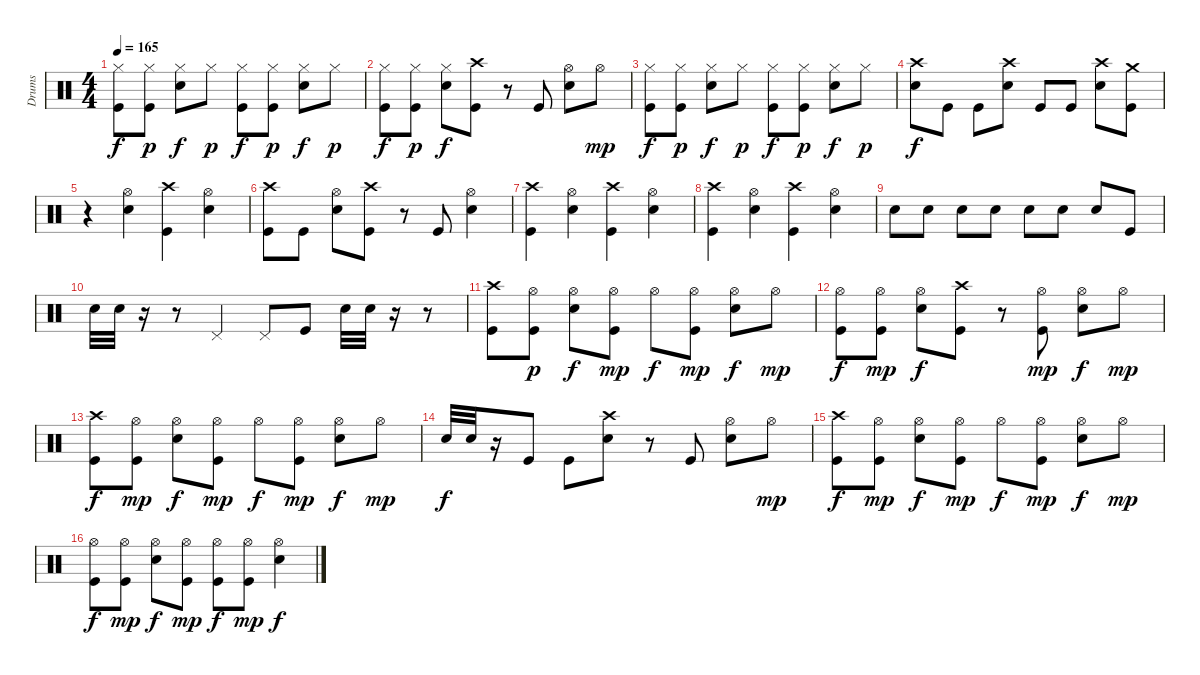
\track ("Drums" "Drums") {instrument percussion}
\staff {score}
\articulation defaults
\ts (4 4)
\tempo 165
\clef neutral
\ks c
("Hi-Hat (closed)" "Kick (hit)").8{dy f} ("Hi-Hat (closed)" "Kick (hit)").8{dy p} ("Hi-Hat (closed)" "Snare (hit) 2").8{dy f} "Hi-Hat (closed)".8{dy p} ("Hi-Hat (closed)" "Kick (hit)").8{dy f} ("Hi-Hat (closed)" "Kick (hit)").8{dy p} ("Hi-Hat (closed)" "Snare (hit) 2").8{dy f} "Hi-Hat (closed)".8{dy p} |
("Hi-Hat (closed)" "Kick (hit)").8{dy f} ("Hi-Hat (closed)" "Kick (hit)").8{dy p} ("Hi-Hat (closed)" "Snare (hit) 2").8{dy f} ("Crash high (hit)" "Kick (hit)").8 r.8 "Kick (hit)".8 ("Hi-Hat (open)" "Snare (hit) 2").8 "Hi-Hat (open)".8{dy mp} |
("Hi-Hat (closed)" "Kick (hit)").8{dy f} ("Hi-Hat (closed)" "Kick (hit)").8{dy p} ("Hi-Hat (closed)" "Snare (hit) 2").8{dy f} "Hi-Hat (closed)".8{dy p} ("Hi-Hat (closed)" "Kick (hit)").8{dy f} ("Hi-Hat (closed)" "Kick (hit)").8{dy p} ("Hi-Hat (closed)" "Snare (hit) 2").8{dy f} "Hi-Hat (closed)".8{dy p} |
("Crash high (hit)" "Snare (hit) 2").8{dy f} "Kick (hit)".8 "Kick (hit)".8 ("Crash high (hit)" "Snare (hit) 2").8 "Kick (hit)".8 "Kick (hit)".8 ("Crash high (hit)" "Snare (hit) 2").8 ("Crash medium (hit)" "Kick (hit)").8 |
r.4 ("Hi-Hat (open)" "Snare (hit) 2").4 ("Crash high (hit)" "Kick (hit)").4 ("Hi-Hat (open)" "Snare (hit) 2").4 |
("Crash high (hit)" "Kick (hit)").8 "Kick (hit)".8 ("Hi-Hat (open)" "Snare (hit) 2").8 ("Crash high (hit)" "Kick (hit)").8 r.8 "Kick (hit)".8 ("Hi-Hat (open)" "Snare (hit) 2").4 |
("Crash high (hit)" "Kick (hit)").4 ("Hi-Hat (open)" "Snare (hit) 2").4 ("Crash high (hit)" "Kick (hit)").4 ("Hi-Hat (open)" "Snare (hit) 2").4 |
("Crash high (hit)" "Kick (hit)").4 ("Hi-Hat (open)" "Snare (hit) 2").4 ("Crash high (hit)" "Kick (hit)").4 ("Hi-Hat (open)" "Snare (hit) 2").4 |
"Snare (hit) 2".8 "Snare (hit) 2".8 "Snare (hit) 2".8 "Snare (hit) 2".8 "Snare (hit) 2".8 "Snare (hit) 2".8 "Snare (hit) 2".8 "Kick (hit)".8 |
"Snare (hit) 2".32 "Snare (hit) 2".32 r.16 r.8 "Pedal Hi-Hat (hit)".4 "Pedal Hi-Hat (hit)".8 "Kick (hit)".8 "Snare (hit) 2".32 "Snare (hit) 2".32 r.16 r.8 |
("Crash high (hit)" "Kick (hit)").8 ("Hi-Hat (open)" "Kick (hit)").8{dy p} ("Hi-Hat (open)" "Snare (hit) 2").8{dy f} ("Hi-Hat (open)" "Kick (hit)").8{dy mp} "Hi-Hat (open)".8{dy f} ("Hi-Hat (open)" "Kick (hit)").8{dy mp} ("Hi-Hat (open)" "Snare (hit) 2").8{dy f} "Hi-Hat (open)".8{dy mp} |
("Hi-Hat (open)" "Kick (hit)").8{dy f} ("Hi-Hat (open)" "Kick (hit)").8{dy mp} ("Hi-Hat (open)" "Snare (hit) 2").8{dy f} ("Crash high (hit)" "Kick (hit)").8 r.8 ("Hi-Hat (open)" "Kick (hit)").8{dy mp} ("Hi-Hat (open)" "Snare (hit) 2").8{dy f} "Hi-Hat (open)".8{dy mp} |
("Crash high (hit)" "Kick (hit)").8{dy f} ("Hi-Hat (open)" "Kick (hit)").8{dy mp} ("Hi-Hat (open)" "Snare (hit) 2").8{dy f} ("Hi-Hat (open)" "Kick (hit)").8{dy mp} "Hi-Hat (open)".8{dy f} ("Hi-Hat (open)" "Kick (hit)").8{dy mp} ("Hi-Hat (open)" "Snare (hit) 2").8{dy f} "Hi-Hat (open)".8{dy mp} |
"Snare (hit) 2".32{dy f} "Snare (hit) 2".32 r.16 "Kick (hit)".8 "Kick (hit)".8 ("Crash high (hit)" "Snare (hit) 2").8 r.8 "Kick (hit)".8 ("Hi-Hat (open)" "Snare (hit) 2").8 "Hi-Hat (open)".8{dy mp} |
("Crash high (hit)" "Kick (hit)").8{dy f} ("Hi-Hat (open)" "Kick (hit)").8{dy mp} ("Hi-Hat (open)" "Snare (hit) 2").8{dy f} ("Hi-Hat (open)" "Kick (hit)").8{dy mp} "Hi-Hat (open)".8{dy f} ("Hi-Hat (open)" "Kick (hit)").8{dy mp} ("Hi-Hat (open)" "Snare (hit) 2").8{dy f} "Hi-Hat (open)".8{dy mp} |
("Hi-Hat (open)" "Kick (hit)").8{dy f} ("Hi-Hat (open)" "Kick (hit)").8{dy mp} ("Hi-Hat (open)" "Snare (hit) 2").8{dy f} ("Hi-Hat (open)" "Kick (hit)").8{dy mp} ("Hi-Hat (open)" "Kick (hit)").8{dy f} ("Hi-Hat (open)" "Kick (hit)").8{dy mp} ("Hi-Hat (open)" "Snare (hit) 2").4{dy f}
